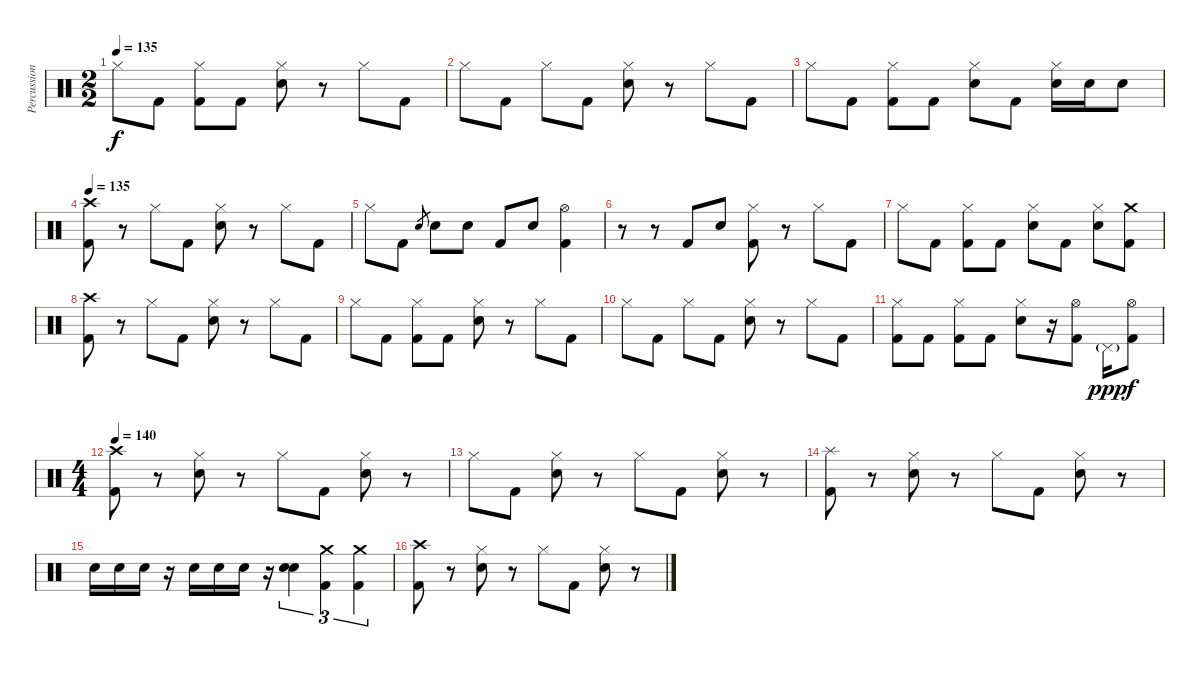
\track ("Percussion(Satish)" "Percussion") {instrument percussion}
\staff {score}
\articulation defaults
\ts (2 2)
\tempo 135
\clef neutral
\ks c "Hi-Hat (closed)".8{dy f} "Kick (hit) 2".8
("Hi-Hat (closed)" "Kick (hit) 2").8 "Kick (hit) 2".8 ("Hi-Hat (closed)" "Snare (hit) 2").8 r.8 "Hi-Hat (closed)".8 "Kick (hit) 2".8 |
"Hi-Hat (closed)".8 "Kick (hit) 2".8 "Hi-Hat (closed)".8 "Kick (hit) 2".8 ("Hi-Hat (closed)" "Snare (hit) 2").8 r.8 "Hi-Hat (closed)".8 "Kick (hit) 2".8 |
"Hi-Hat (closed)".8 "Kick (hit) 2".8 ("Hi-Hat (closed)" "Kick (hit) 2").8 "Kick (hit) 2".8 ("Hi-Hat (closed)" "Snare (hit) 2").8 "Kick (hit) 2".8 ("Hi-Hat (closed)" "Snare (hit) 2").16 "Snare (hit) 2".16 "Snare (hit) 2".8 |
\tempo 135
("Crash high (hit)" "Kick (hit) 2").8 r.8 "Hi-Hat (closed)".8 "Kick (hit) 2".8 ("Hi-Hat (closed)" "Snare (hit) 2").8 r.8 "Hi-Hat (closed)".8 "Kick (hit) 2".8 |
"Hi-Hat (closed)".8 "Kick (hit) 2".8 "Snare (hit) 2".8{gr} "Snare (hit) 2".8 "Snare (hit) 2".8 "Kick (hit) 2".8 "Snare (hit) 2".8 ("Hi-Hat (open)" "Kick (hit) 2").4 |
r.8 r.8 "Kick (hit) 2".8 "Snare (hit) 2".8 ("Hi-Hat (closed)" "Kick (hit) 2").8 r.8 "Hi-Hat (closed)".8 "Kick (hit) 2".8 |
"Hi-Hat (closed)".8 "Kick (hit) 2".8 ("Hi-Hat (closed)" "Kick (hit) 2").8 "Kick (hit) 2".8 ("Hi-Hat (closed)" "Snare (hit) 2").8 "Kick (hit) 2".8 ("Hi-Hat (closed)" "Snare (hit) 2").8 ("Crash medium (hit)" "Kick (hit) 2").8 |
("Crash high (hit)" "Kick (hit) 2").8 r.8 "Hi-Hat (closed)".8 "Kick (hit) 2".8 ("Hi-Hat (closed)" "Snare (hit) 2").8 r.8 "Hi-Hat (closed)".8 "Kick (hit) 2".8 |
"Hi-Hat (closed)".8 "Kick (hit) 2".8 ("Hi-Hat (closed)" "Kick (hit) 2").8 "Kick (hit) 2".8 ("Hi-Hat (closed)" "Snare (hit) 2").8 r.8 "Hi-Hat (closed)".8 "Kick (hit) 2".8 |
"Hi-Hat (closed)".8 "Kick (hit) 2".8 "Hi-Hat (closed)".8 "Kick (hit) 2".8 ("Hi-Hat (closed)" "Snare (hit) 2").8 r.8 "Hi-Hat (closed)".8 "Kick (hit) 2".8 |
("Hi-Hat (closed)" "Kick (hit) 2").8 "Kick (hit) 2".8 ("Hi-Hat (closed)" "Kick (hit) 2").8 "Kick (hit) 2".8 ("Hi-Hat (closed)" "Snare (hit) 2").8 r.16 ("Hi-Hat (open)" "Kick (hit) 2").8 "Pedal Hi-Hat (hit)"{g}.16{dy ppp} ("Hi-Hat (open)" "Kick (hit) 2").8{dy f} |
\ts (4 4)
\tempo 140
("Crash high (hit)" "Kick (hit) 2").8 r.8 ("Hi-Hat (closed)" "Snare (hit) 2").8 r.8 "Hi-Hat (closed)".8 "Kick (hit) 2".8 ("Hi-Hat (closed)" "Snare (hit) 2").8 r.8 |
"Hi-Hat (closed)".8 "Kick (hit) 2".8 ("Hi-Hat (closed)" "Snare (hit) 2").8 r.8 "Hi-Hat (closed)".8 "Kick (hit) 2".8 ("Hi-Hat (closed)" "Snare (hit) 2").8 r.8 |
("Splash (hit)" "Kick (hit) 2").8 r.8 ("Hi-Hat (closed)" "Snare (hit) 2").8 r.8 "Hi-Hat (closed)".8 "Kick (hit) 2".8 ("Hi-Hat (closed)" "Snare (hit) 2").8 r.8 |
"Snare (hit) 2".16 "Snare (hit) 2".16 "Snare (hit) 2".16 r.16 "Snare (hit) 2".16 "Snare (hit) 2".16 "Snare (hit) 2".16 r.16 ("Snare (hit) 2" "Snare (hit) 2").4{tu (3 2) bd 480} ("Crash medium (hit)" "Kick (hit) 2").4{tu (3 2)} ("Crash medium (hit)" "Kick (hit) 2").4{tu (3 2)} |
("Crash high (hit)" "Kick (hit) 2").8 r.8 ("Hi-Hat (closed)" "Snare (hit) 2").8 r.8 "Hi-Hat (closed)".8 "Kick (hit) 2".8 ("Hi-Hat (closed)" "Snare (hit) 2").8 r.8
